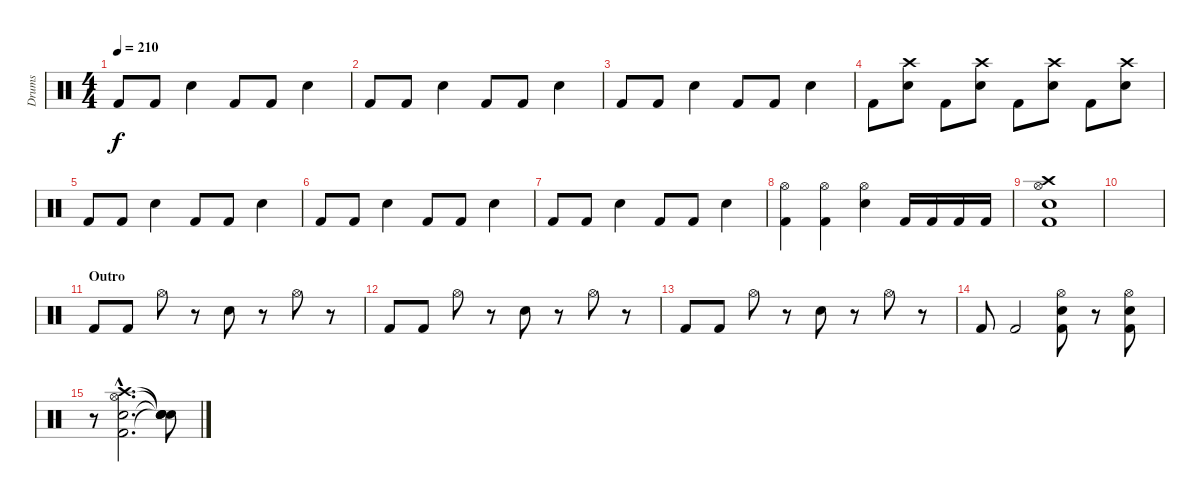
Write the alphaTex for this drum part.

\track ("Drums" "Drums") {instrument percussion}
\staff {score}
\articulation defaults
\ts (4 4)
\tempo 210
\clef neutral
\ks c "Kick (hit) 2".8{dy f} "Kick (hit) 2".8 "Electric Snare (hit)".4 "Kick (hit) 2".8 "Kick (hit) 2".8 "Electric Snare (hit)".4
|
"Kick (hit) 2".8 "Kick (hit) 2".8 "Electric Snare (hit)".4 "Kick (hit) 2".8 "Kick (hit) 2".8 "Electric Snare (hit)".4 |
"Kick (hit) 2".8 "Kick (hit) 2".8 "Electric Snare (hit)".4 "Kick (hit) 2".8 "Kick (hit) 2".8 "Electric Snare (hit)".4 |
"Kick (hit) 2".8 ("Crash high (hit)" "Electric Snare (hit)").8 "Kick (hit) 2".8 ("Crash high (hit)" "Electric Snare (hit)").8 "Kick (hit) 2".8 ("Crash high (hit)" "Electric Snare (hit)").8 "Kick (hit) 2".8 ("Crash high (hit)" "Electric Snare (hit)").8 |
"Kick (hit) 2".8 "Kick (hit) 2".8 "Electric Snare (hit)".4 "Kick (hit) 2".8 "Kick (hit) 2".8 "Electric Snare (hit)".4 |
"Kick (hit) 2".8 "Kick (hit) 2".8 "Electric Snare (hit)".4 "Kick (hit) 2".8 "Kick (hit) 2".8 "Electric Snare (hit)".4 |
"Kick (hit) 2".8 "Kick (hit) 2".8 "Electric Snare (hit)".4 "Kick (hit) 2".8 "Kick (hit) 2".8 "Electric Snare (hit)".4 |
("Hi-Hat (open)" "Kick (hit) 2").4 ("Hi-Hat (open)" "Kick (hit) 2").4 ("Hi-Hat (open)" "Electric Snare (hit)").4 "Kick (hit) 2".16 "Kick (hit) 2".16 "Kick (hit) 2".16 "Kick (hit) 2".16 |
("Crash high (hit)" "Hi-Hat (open)" "Electric Snare (hit)" "Kick (hit) 2").1 |
|
\section ("" "Outro")
"Kick (hit) 2".8 "Kick (hit) 2".8 "Hi-Hat (open)".8 r.8 "Electric Snare (hit)".8 r.8 "Hi-Hat (open)".8 r.8 |
"Kick (hit) 2".8 "Kick (hit) 2".8 "Hi-Hat (open)".8 r.8 "Electric Snare (hit)".8 r.8 "Hi-Hat (open)".8 r.8 |
"Kick (hit) 2".8 "Kick (hit) 2".8 "Hi-Hat (open)".8 r.8 "Electric Snare (hit)".8 r.8 "Hi-Hat (open)".8 r.8 |
"Kick (hit) 2".8 "Kick (hit) 2".2 ("Hi-Hat (open)" "Electric Snare (hit)" "Kick (hit) 2").8 r.8 ("Hi-Hat (open)" "Electric Snare (hit)" "Kick (hit) 2").8 |
r.8 ("Crash high (hit)"{hac} "Hi-Hat (open)"{hac} "Electric Snare (hit)"{hac} "Kick (hit) 2"{hac}).2{d} ("Snare (hit)"{t} "Snare (hit)"{t} "Snare (hit)"{t} "Snare (hit)"{t}).8
